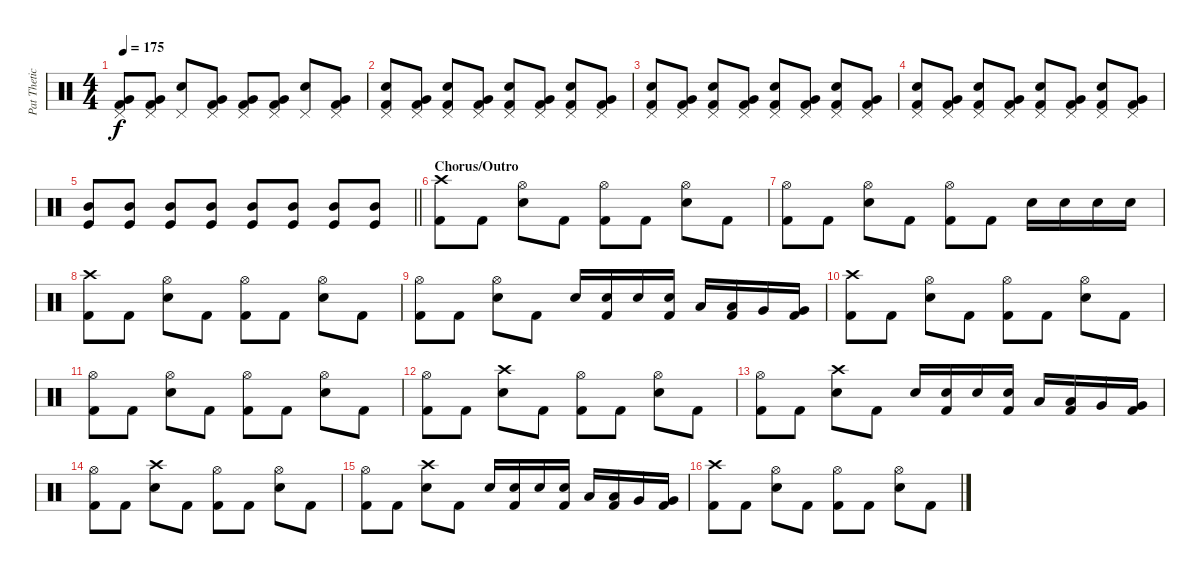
\track ("Pat Thetic" "Pat Thetic") {instrument percussion}
\staff {score}
\articulation defaults
\ts (4 4)
\tempo 175
\clef neutral
\ks c
("Pedal Hi-Hat (hit)" "Very Low Tom (hit)" "Kick (hit) 2").8{dy f} ("Pedal Hi-Hat (hit)" "Very Low Tom (hit)" "Kick (hit) 2").8 ("Pedal Hi-Hat (hit)" "Electric Snare (hit)").8 ("Pedal Hi-Hat (hit)" "Very Low Tom (hit)" "Kick (hit) 2").8 ("Pedal Hi-Hat (hit)" "Very Low Tom (hit)" "Kick (hit) 2").8 ("Pedal Hi-Hat (hit)" "Very Low Tom (hit)" "Kick (hit) 2").8 ("Pedal Hi-Hat (hit)" "Electric Snare (hit)").8 ("Pedal Hi-Hat (hit)" "Very Low Tom (hit)" "Kick (hit) 2").8 |
("Pedal Hi-Hat (hit)" "Electric Snare (hit)" "Kick (hit) 2").8 ("Pedal Hi-Hat (hit)" "Very Low Tom (hit)" "Kick (hit) 2").8 ("Pedal Hi-Hat (hit)" "Electric Snare (hit)" "Kick (hit) 2").8 ("Pedal Hi-Hat (hit)" "Very Low Tom (hit)" "Kick (hit) 2").8 ("Pedal Hi-Hat (hit)" "Electric Snare (hit)" "Kick (hit) 2").8 ("Pedal Hi-Hat (hit)" "Very Low Tom (hit)" "Kick (hit) 2").8 ("Pedal Hi-Hat (hit)" "Electric Snare (hit)" "Kick (hit) 2").8 ("Pedal Hi-Hat (hit)" "Very Low Tom (hit)" "Kick (hit) 2").8 |
("Pedal Hi-Hat (hit)" "Electric Snare (hit)" "Kick (hit) 2").8 ("Pedal Hi-Hat (hit)" "Very Low Tom (hit)" "Kick (hit) 2").8 ("Pedal Hi-Hat (hit)" "Electric Snare (hit)" "Kick (hit) 2").8 ("Pedal Hi-Hat (hit)" "Very Low Tom (hit)" "Kick (hit) 2").8 ("Pedal Hi-Hat (hit)" "Electric Snare (hit)" "Kick (hit) 2").8 ("Pedal Hi-Hat (hit)" "Very Low Tom (hit)" "Kick (hit) 2").8 ("Pedal Hi-Hat (hit)" "Electric Snare (hit)" "Kick (hit) 2").8 ("Pedal Hi-Hat (hit)" "Very Low Tom (hit)" "Kick (hit) 2").8 |
("Pedal Hi-Hat (hit)" "Electric Snare (hit)" "Kick (hit) 2").8 ("Pedal Hi-Hat (hit)" "Very Low Tom (hit)" "Kick (hit) 2").8 ("Pedal Hi-Hat (hit)" "Electric Snare (hit)" "Kick (hit) 2").8 ("Pedal Hi-Hat (hit)" "Very Low Tom (hit)" "Kick (hit) 2").8 ("Pedal Hi-Hat (hit)" "Electric Snare (hit)" "Kick (hit) 2").8 ("Pedal Hi-Hat (hit)" "Very Low Tom (hit)" "Kick (hit) 2").8 ("Pedal Hi-Hat (hit)" "Electric Snare (hit)" "Kick (hit) 2").8 ("Pedal Hi-Hat (hit)" "Very Low Tom (hit)" "Kick (hit) 2").8 |
\barLineRight lightlight
("Mid Tom (hit)" "Kick (hit)").8 ("Mid Tom (hit)" "Kick (hit)").8 ("Mid Tom (hit)" "Kick (hit)").8 ("Mid Tom (hit)" "Kick (hit)").8 ("Mid Tom (hit)" "Kick (hit)").8 ("Mid Tom (hit)" "Kick (hit)").8 ("Mid Tom (hit)" "Kick (hit)").8 ("Mid Tom (hit)" "Kick (hit)").8 |
\section ("" "Chorus/Outro")
("Crash high (hit)" "Kick (hit) 2").8 "Kick (hit) 2".8 ("Hi-Hat (open)" "Electric Snare (hit)").8 "Kick (hit) 2".8 ("Hi-Hat (open)" "Kick (hit) 2").8 "Kick (hit) 2".8 ("Hi-Hat (open)" "Electric Snare (hit)").8 "Kick (hit) 2".8 |
("Hi-Hat (open)" "Kick (hit) 2").8 "Kick (hit) 2".8 ("Hi-Hat (open)" "Electric Snare (hit)").8 "Kick (hit) 2".8 ("Hi-Hat (open)" "Kick (hit) 2").8 "Kick (hit) 2".8 "Electric Snare (hit)".16 "Electric Snare (hit)".16 "Electric Snare (hit)".16 "Electric Snare (hit)".16 |
("Crash high (hit)" "Kick (hit) 2").8 "Kick (hit) 2".8 ("Hi-Hat (open)" "Electric Snare (hit)").8 "Kick (hit) 2".8 ("Hi-Hat (open)" "Kick (hit) 2").8 "Kick (hit) 2".8 ("Hi-Hat (open)" "Electric Snare (hit)").8 "Kick (hit) 2".8 |
("Hi-Hat (open)" "Kick (hit) 2").8 "Kick (hit) 2".8 ("Hi-Hat (open)" "Electric Snare (hit)").8 "Kick (hit) 2".8 "Electric Snare (hit)".16 ("Electric Snare (hit)" "Kick (hit) 2").16 "Electric Snare (hit)".16 ("Electric Snare (hit)" "Kick (hit) 2").16 "Low Tom (hit)".16 ("Low Tom (hit)" "Kick (hit) 2").16 "Very Low Tom (hit)".16 ("Very Low Tom (hit)" "Kick (hit) 2").16 |
("Crash high (hit)" "Kick (hit) 2").8 "Kick (hit) 2".8 ("Hi-Hat (open)" "Electric Snare (hit)").8 "Kick (hit) 2".8 ("Hi-Hat (open)" "Kick (hit) 2").8 "Kick (hit) 2".8 ("Hi-Hat (open)" "Electric Snare (hit)").8 "Kick (hit) 2".8 |
("Hi-Hat (open)" "Kick (hit) 2").8 "Kick (hit) 2".8 ("Hi-Hat (open)" "Electric Snare (hit)").8 "Kick (hit) 2".8 ("Hi-Hat (open)" "Kick (hit) 2").8 "Kick (hit) 2".8 ("Hi-Hat (open)" "Electric Snare (hit)").8 "Kick (hit) 2".8 |
("Hi-Hat (open)" "Kick (hit) 2").8 "Kick (hit) 2".8 ("Crash high (hit)" "Electric Snare (hit)").8 "Kick (hit) 2".8 ("Hi-Hat (open)" "Kick (hit) 2").8 "Kick (hit) 2".8 ("Hi-Hat (open)" "Electric Snare (hit)").8 "Kick (hit) 2".8 |
("Hi-Hat (open)" "Kick (hit) 2").8 "Kick (hit) 2".8 ("Crash high (hit)" "Electric Snare (hit)").8 "Kick (hit) 2".8 "Electric Snare (hit)".16 ("Electric Snare (hit)" "Kick (hit) 2").16 "Electric Snare (hit)".16 ("Electric Snare (hit)" "Kick (hit) 2").16 "Low Tom (hit)".16 ("Low Tom (hit)" "Kick (hit) 2").16 "Very Low Tom (hit)".16 ("Very Low Tom (hit)" "Kick (hit) 2").16 |
("Hi-Hat (open)" "Kick (hit) 2").8 "Kick (hit) 2".8 ("Crash high (hit)" "Electric Snare (hit)").8 "Kick (hit) 2".8 ("Hi-Hat (open)" "Kick (hit) 2").8 "Kick (hit) 2".8 ("Hi-Hat (open)" "Electric Snare (hit)").8 "Kick (hit) 2".8 |
("Hi-Hat (open)" "Kick (hit) 2").8 "Kick (hit) 2".8 ("Crash high (hit)" "Electric Snare (hit)").8 "Kick (hit) 2".8 "Electric Snare (hit)".16 ("Electric Snare (hit)" "Kick (hit) 2").16 "Electric Snare (hit)".16 ("Electric Snare (hit)" "Kick (hit) 2").16 "Low Tom (hit)".16 ("Low Tom (hit)" "Kick (hit) 2").16 "Very Low Tom (hit)".16 ("Very Low Tom (hit)" "Kick (hit) 2").16 |
("Crash high (hit)" "Kick (hit) 2").8 "Kick (hit) 2".8 ("Hi-Hat (open)" "Electric Snare (hit)").8 "Kick (hit) 2".8 ("Hi-Hat (open)" "Kick (hit) 2").8 "Kick (hit) 2".8 ("Hi-Hat (open)" "Electric Snare (hit)").8 "Kick (hit) 2".8
